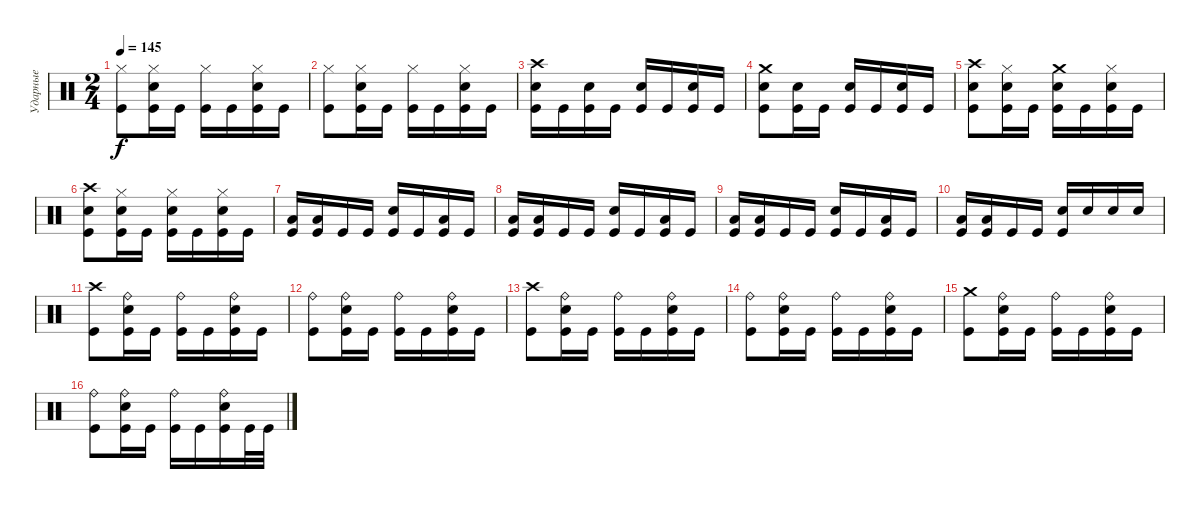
\track ("Ударные" "Ударные") {instrument percussion}
\staff {score}
\articulation defaults
\ts (2 4)
\tempo 145
\clef neutral
\ks c
("Hi-Hat (closed)" "Kick (hit)").8{dy f} ("Hi-Hat (closed)" "Electric Snare (hit)" "Kick (hit)").16 "Kick (hit)".16 ("Hi-Hat (closed)" "Kick (hit)").16 "Kick (hit)".16 ("Hi-Hat (closed)" "Electric Snare (hit)" "Kick (hit)").16 "Kick (hit)".16 |
("Hi-Hat (closed)" "Kick (hit)").8 ("Hi-Hat (closed)" "Electric Snare (hit)" "Kick (hit)").16 "Kick (hit)".16 ("Hi-Hat (closed)" "Kick (hit)").16 "Kick (hit)".16 ("Hi-Hat (closed)" "Electric Snare (hit)" "Kick (hit)").16 "Kick (hit)".16 |
("Crash high (hit)" "Electric Snare (hit)" "Kick (hit)").16 "Kick (hit)".16 ("Electric Snare (hit)" "Kick (hit)").16 "Kick (hit)".16 ("Electric Snare (hit)" "Kick (hit)").16 "Kick (hit)".16 ("Electric Snare (hit)" "Kick (hit)").16 "Kick (hit)".16 |
("Crash medium (hit)" "Electric Snare (hit)" "Kick (hit)").8 ("Electric Snare (hit)" "Kick (hit)").16 "Kick (hit)".16 ("Electric Snare (hit)" "Kick (hit)").16 "Kick (hit)".16 ("Electric Snare (hit)" "Kick (hit)").16 "Kick (hit)".16 |
("Crash high (hit)" "Electric Snare (hit)" "Kick (hit)").8 ("Hi-Hat (closed)" "Electric Snare (hit)" "Kick (hit)").16 "Kick (hit)".16 ("Crash medium (hit)" "Electric Snare (hit)" "Kick (hit)").16 "Kick (hit)".16 ("Hi-Hat (closed)" "Electric Snare (hit)" "Kick (hit)").16 "Kick (hit)".16 |
("Crash high (hit)" "Electric Snare (hit)" "Kick (hit)").8 ("Hi-Hat (closed)" "Electric Snare (hit)" "Kick (hit)").16 "Kick (hit)".16 ("Hi-Hat (closed)" "Electric Snare (hit)" "Kick (hit)").16 "Kick (hit)".16 ("Hi-Hat (closed)" "Electric Snare (hit)" "Kick (hit)").16 "Kick (hit)".16 |
("Low Tom (hit)" "Kick (hit)").16 ("Low Tom (hit)" "Kick (hit)").16 "Kick (hit)".16 "Kick (hit)".16 ("Electric Snare (hit)" "Kick (hit)").16 "Kick (hit)".16 ("Low Tom (hit)" "Kick (hit)").16 "Kick (hit)".16 |
("Low Tom (hit)" "Kick (hit)").16 ("Low Tom (hit)" "Kick (hit)").16 "Kick (hit)".16 "Kick (hit)".16 ("Electric Snare (hit)" "Kick (hit)").16 "Kick (hit)".16 ("Low Tom (hit)" "Kick (hit)").16 "Kick (hit)".16 |
("Low Tom (hit)" "Kick (hit)").16 ("Low Tom (hit)" "Kick (hit)").16 "Kick (hit)".16 "Kick (hit)".16 ("Electric Snare (hit)" "Kick (hit)").16 "Kick (hit)".16 ("Low Tom (hit)" "Kick (hit)").16 "Kick (hit)".16 |
("Low Tom (hit)" "Kick (hit)").16 ("Low Tom (hit)" "Kick (hit)").16 "Kick (hit)".16 "Kick (hit)".16 ("Electric Snare (hit)" "Kick (hit)").16 "Electric Snare (hit)".16 "Electric Snare (hit)".16 "Electric Snare (hit)".16 |
("Crash high (hit)" "Kick (hit)").8 ("Ride (bell)" "Electric Snare (hit)" "Kick (hit)").16 "Kick (hit)".16 ("Ride (bell)" "Kick (hit)").16 "Kick (hit)".16 ("Ride (bell)" "Electric Snare (hit)" "Kick (hit)").16 "Kick (hit)".16 |
("Ride (bell)" "Kick (hit)").8 ("Ride (bell)" "Electric Snare (hit)" "Kick (hit)").16 "Kick (hit)".16 ("Ride (bell)" "Kick (hit)").16 "Kick (hit)".16 ("Ride (bell)" "Electric Snare (hit)" "Kick (hit)").16 "Kick (hit)".16 |
("Crash high (hit)" "Kick (hit)").8 ("Ride (bell)" "Electric Snare (hit)" "Kick (hit)").16 "Kick (hit)".16 ("Ride (bell)" "Kick (hit)").16 "Kick (hit)".16 ("Ride (bell)" "Electric Snare (hit)" "Kick (hit)").16 "Kick (hit)".16 |
("Ride (bell)" "Kick (hit)").8 ("Ride (bell)" "Electric Snare (hit)" "Kick (hit)").16 "Kick (hit)".16 ("Ride (bell)" "Kick (hit)").16 "Kick (hit)".16 ("Ride (bell)" "Electric Snare (hit)" "Kick (hit)").16 "Kick (hit)".16 |
("Crash medium (hit)" "Kick (hit)").8 ("Ride (bell)" "Electric Snare (hit)" "Kick (hit)").16 "Kick (hit)".16 ("Ride (bell)" "Kick (hit)").16 "Kick (hit)".16 ("Ride (bell)" "Electric Snare (hit)" "Kick (hit)").16 "Kick (hit)".16 |
("Ride (bell)" "Kick (hit)").8 ("Ride (bell)" "Electric Snare (hit)" "Kick (hit)").16 "Kick (hit)".16 ("Ride (bell)" "Kick (hit)").16 "Kick (hit)".16 ("Ride (bell)" "Electric Snare (hit)" "Kick (hit)").16 "Kick (hit)".32 "Kick (hit)".32
